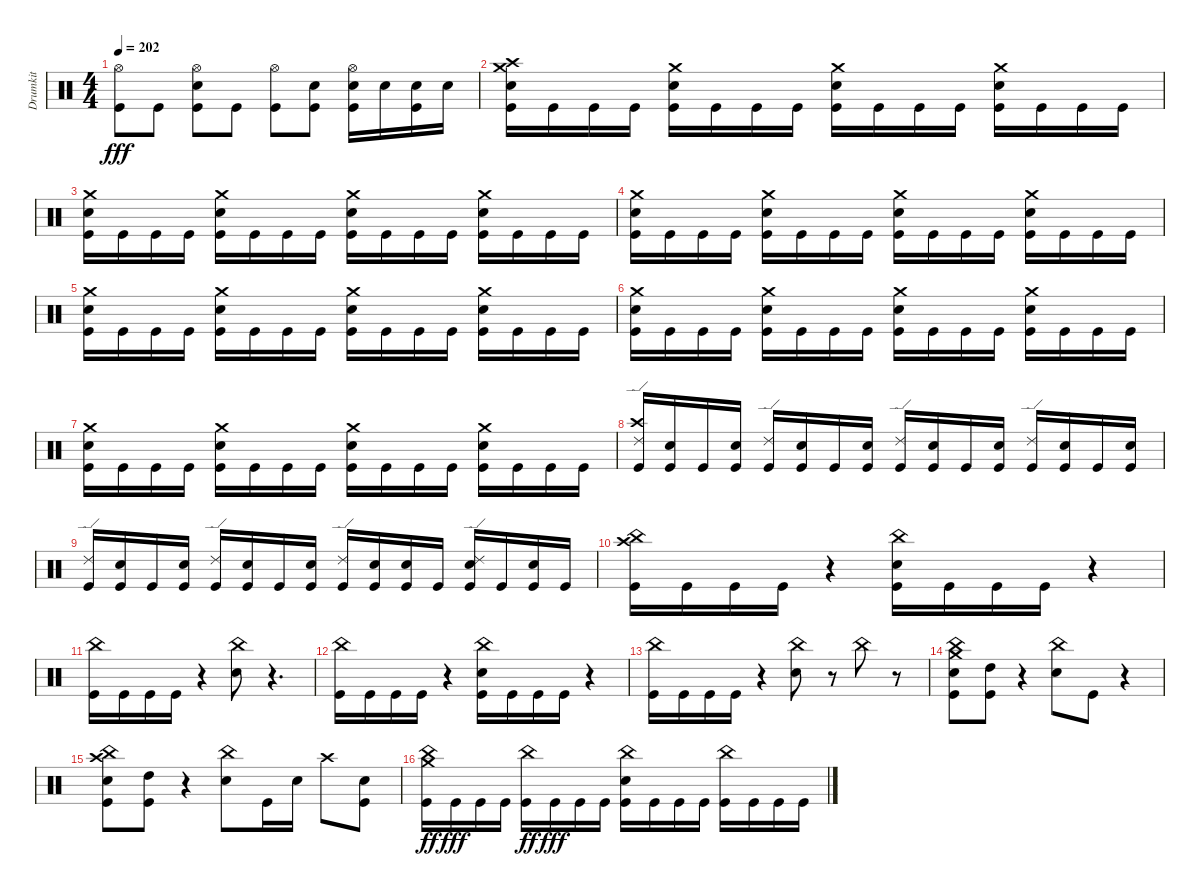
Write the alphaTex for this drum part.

\track ("Drumkit" "Drumkit") {instrument percussion}
\staff {score}
\articulation defaults
\ts (4 4)
\tempo 202
\clef neutral
\ks c
("Hi-Hat (open)" "Kick (hit)").8{dy fff} "Kick (hit)".8 ("Snare (hit) 2" "Hi-Hat (open)" "Kick (hit)").8 "Kick (hit)".8 ("Hi-Hat (open)" "Kick (hit)").8 ("Snare (hit) 2" "Kick (hit)").8 ("Snare (hit) 2" "Hi-Hat (open)" "Kick (hit)").16 "Snare (hit) 2".16 ("Snare (hit) 2" "Kick (hit)").16 "Snare (hit) 2".16 |
("Crash medium (hit)" "Snare (hit) 2" "Crash high (hit)" "Kick (hit)").16 "Kick (hit)".16 "Kick (hit)".16 "Kick (hit)".16 ("Crash medium (hit)" "Snare (hit) 2" "Kick (hit)").16 "Kick (hit)".16 "Kick (hit)".16 "Kick (hit)".16 ("Crash medium (hit)" "Snare (hit) 2" "Kick (hit)").16 "Kick (hit)".16 "Kick (hit)".16 "Kick (hit)".16 ("Crash medium (hit)" "Snare (hit) 2" "Kick (hit)").16 "Kick (hit)".16 "Kick (hit)".16 "Kick (hit)".16 |
("Crash medium (hit)" "Snare (hit) 2" "Kick (hit)").16 "Kick (hit)".16 "Kick (hit)".16 "Kick (hit)".16 ("Crash medium (hit)" "Snare (hit) 2" "Kick (hit)").16 "Kick (hit)".16 "Kick (hit)".16 "Kick (hit)".16 ("Crash medium (hit)" "Snare (hit) 2" "Kick (hit)").16 "Kick (hit)".16 "Kick (hit)".16 "Kick (hit)".16 ("Crash medium (hit)" "Snare (hit) 2" "Kick (hit)").16 "Kick (hit)".16 "Kick (hit)".16 "Kick (hit)".16 |
("Crash medium (hit)" "Snare (hit) 2" "Kick (hit)").16 "Kick (hit)".16 "Kick (hit)".16 "Kick (hit)".16 ("Crash medium (hit)" "Snare (hit) 2" "Kick (hit)").16 "Kick (hit)".16 "Kick (hit)".16 "Kick (hit)".16 ("Crash medium (hit)" "Snare (hit) 2" "Kick (hit)").16 "Kick (hit)".16 "Kick (hit)".16 "Kick (hit)".16 ("Crash medium (hit)" "Snare (hit) 2" "Kick (hit)").16 "Kick (hit)".16 "Kick (hit)".16 "Kick (hit)".16 |
("Crash medium (hit)" "Snare (hit) 2" "Kick (hit)").16 "Kick (hit)".16 "Kick (hit)".16 "Kick (hit)".16 ("Crash medium (hit)" "Snare (hit) 2" "Kick (hit)").16 "Kick (hit)".16 "Kick (hit)".16 "Kick (hit)".16 ("Crash medium (hit)" "Snare (hit) 2" "Kick (hit)").16 "Kick (hit)".16 "Kick (hit)".16 "Kick (hit)".16 ("Crash medium (hit)" "Snare (hit) 2" "Kick (hit)").16 "Kick (hit)".16 "Kick (hit)".16 "Kick (hit)".16 |
("Crash medium (hit)" "Snare (hit) 2" "Kick (hit)").16 "Kick (hit)".16 "Kick (hit)".16 "Kick (hit)".16 ("Crash medium (hit)" "Snare (hit) 2" "Kick (hit)").16 "Kick (hit)".16 "Kick (hit)".16 "Kick (hit)".16 ("Crash medium (hit)" "Snare (hit) 2" "Kick (hit)").16 "Kick (hit)".16 "Kick (hit)".16 "Kick (hit)".16 ("Crash medium (hit)" "Snare (hit) 2" "Kick (hit)").16 "Kick (hit)".16 "Kick (hit)".16 "Kick (hit)".16 |
("Crash medium (hit)" "Snare (hit) 2" "Kick (hit)").16 "Kick (hit)".16 "Kick (hit)".16 "Kick (hit)".16 ("Crash medium (hit)" "Snare (hit) 2" "Kick (hit)").16 "Kick (hit)".16 "Kick (hit)".16 "Kick (hit)".16 ("Crash medium (hit)" "Snare (hit) 2" "Kick (hit)").16 "Kick (hit)".16 "Kick (hit)".16 "Kick (hit)".16 ("Crash medium (hit)" "Snare (hit) 2" "Kick (hit)").16 "Kick (hit)".16 "Kick (hit)".16 "Kick (hit)".16 |
("Crash high (hit)" "Ride (edge) 2" "Kick (hit)").16 ("Snare (hit) 2" "Kick (hit)").16 "Kick (hit)".16 ("Snare (hit) 2" "Kick (hit)").16 ("Ride (edge) 2" "Kick (hit)").16 ("Snare (hit) 2" "Kick (hit)").16 "Kick (hit)".16 ("Snare (hit) 2" "Kick (hit)").16 ("Ride (edge) 2" "Kick (hit)").16 ("Snare (hit) 2" "Kick (hit)").16 "Kick (hit)".16 ("Snare (hit) 2" "Kick (hit)").16 ("Ride (edge) 2" "Kick (hit)").16 ("Snare (hit) 2" "Kick (hit)").16 "Kick (hit)".16 ("Snare (hit) 2" "Kick (hit)").16 |
("Ride (edge) 2" "Kick (hit)").16 ("Snare (hit) 2" "Kick (hit)").16 "Kick (hit)".16 ("Snare (hit) 2" "Kick (hit)").16 ("Ride (edge) 2" "Kick (hit)").16 ("Snare (hit) 2" "Kick (hit)").16 "Kick (hit)".16 ("Snare (hit) 2" "Kick (hit)").16 ("Ride (edge) 2" "Kick (hit)").16 ("Snare (hit) 2" "Kick (hit)").16 ("Snare (hit) 2" "Kick (hit)").16 "Kick (hit)".16 ("Ride (edge) 2" "Snare (hit) 2" "Kick (hit)").16 "Kick (hit)".16 ("Snare (hit) 2" "Kick (hit)").16 "Kick (hit)".16 |
("China (hit)" "Crash high (hit)" "Kick (hit)").16 "Kick (hit)".16 "Kick (hit)".16 "Kick (hit)".16 r.4 ("China (hit)" "Snare (hit) 2" "Kick (hit)").16 "Kick (hit)".16 "Kick (hit)".16 "Kick (hit)".16 r.4 |
("China (hit)" "Kick (hit)").16 "Kick (hit)".16 "Kick (hit)".16 "Kick (hit)".16 r.4 ("China (hit)" "Snare (hit) 2").8 r.4{d} |
("China (hit)" "Kick (hit)").16 "Kick (hit)".16 "Kick (hit)".16 "Kick (hit)".16 r.4 ("China (hit)" "Snare (hit) 2" "Kick (hit)").16 "Kick (hit)".16 "Kick (hit)".16 "Kick (hit)".16 r.4 |
("China (hit)" "Kick (hit)").16 "Kick (hit)".16 "Kick (hit)".16 "Kick (hit)".16 r.4 ("China (hit)" "Snare (hit) 2").8 r.8 "China (hit)".8 r.8 |
("China (hit)" "Snare (hit) 2" "Crash medium (hit)" "Kick (hit)").8 ("High Tom (hit)" "Kick (hit)").8 r.4 ("China (hit)" "Snare (hit) 2").8 "Kick (hit)".8 r.4 |
("China (hit)" "Snare (hit) 2" "Crash high (hit)" "Kick (hit)").8 ("High Tom (hit)" "Kick (hit)").8 r.4 ("China (hit)" "Snare (hit) 2").8 "Kick (hit)".16 "Snare (hit) 2".16 "Crash high (hit)".8 ("Snare (hit) 2" "Kick (hit)").8 |
("China (hit)" "Crash medium (hit)" "Kick (hit)").16{dy ff} "Kick (hit)".16{dy fff} "Kick (hit)".16 "Kick (hit)".16 ("China (hit)" "Kick (hit)").16{dy ff} "Kick (hit)".16{dy fff} "Kick (hit)".16 "Kick (hit)".16 ("China (hit)" "Snare (hit) 2" "Kick (hit)").16 "Kick (hit)".16 "Kick (hit)".16 "Kick (hit)".16 ("China (hit)" "Kick (hit)").16 "Kick (hit)".16 "Kick (hit)".16 "Kick (hit)".16
